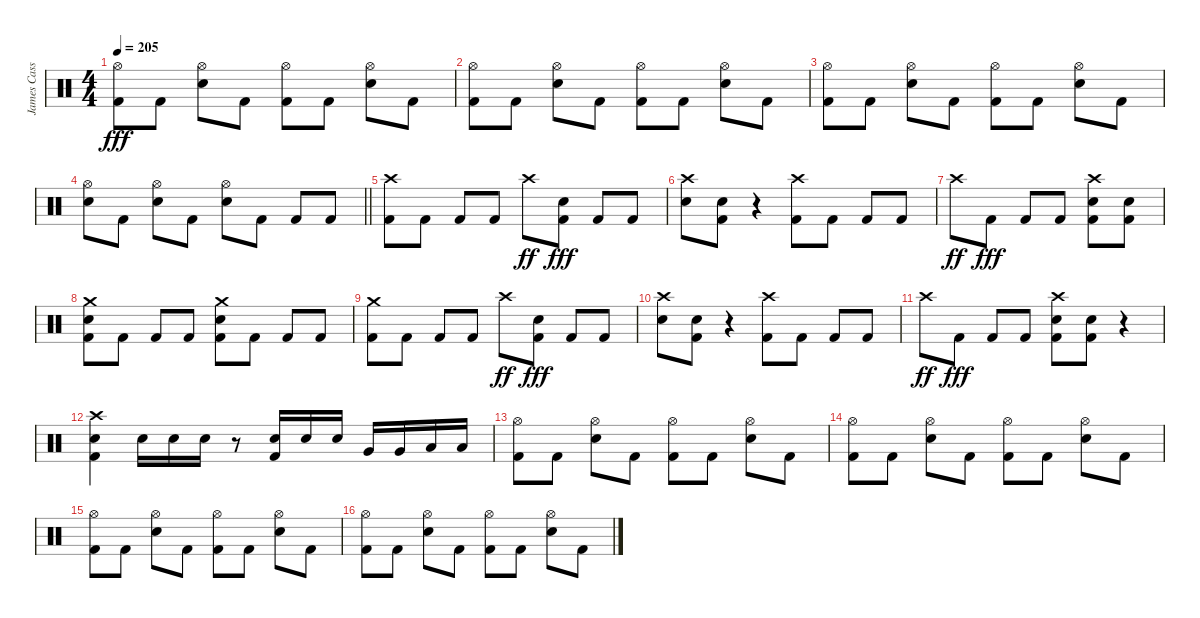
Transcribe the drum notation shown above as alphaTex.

\track ("James Cassels" "James Cass") {instrument percussion}
\staff {score}
\articulation defaults
\ts (4 4)
\tempo 205
\clef neutral
\ks c
("Hi-Hat (open)" "Kick (hit) 2").8{dy fff} "Kick (hit) 2".8 ("Hi-Hat (open)" "Electric Snare (hit)").8 "Kick (hit) 2".8 ("Hi-Hat (open)" "Kick (hit) 2").8 "Kick (hit) 2".8 ("Hi-Hat (open)" "Electric Snare (hit)").8 "Kick (hit) 2".8 |
("Hi-Hat (open)" "Kick (hit) 2").8 "Kick (hit) 2".8 ("Hi-Hat (open)" "Electric Snare (hit)").8 "Kick (hit) 2".8 ("Hi-Hat (open)" "Kick (hit) 2").8 "Kick (hit) 2".8 ("Hi-Hat (open)" "Electric Snare (hit)").8 "Kick (hit) 2".8 |
("Hi-Hat (open)" "Kick (hit) 2").8 "Kick (hit) 2".8 ("Hi-Hat (open)" "Electric Snare (hit)").8 "Kick (hit) 2".8 ("Hi-Hat (open)" "Kick (hit) 2").8 "Kick (hit) 2".8 ("Hi-Hat (open)" "Electric Snare (hit)").8 "Kick (hit) 2".8 |
\barLineRight lightlight
("Hi-Hat (open)" "Electric Snare (hit)").8 "Kick (hit) 2".8 ("Hi-Hat (open)" "Electric Snare (hit)").8 "Kick (hit) 2".8 ("Hi-Hat (open)" "Electric Snare (hit)").8 "Kick (hit) 2".8 "Kick (hit) 2".8 "Kick (hit) 2".8 |
("Crash high (hit)" "Kick (hit) 2").8 "Kick (hit) 2".8 "Kick (hit) 2".8 "Kick (hit) 2".8 "Crash high (hit)".8{dy ff} ("Electric Snare (hit)" "Kick (hit) 2").8{dy fff} "Kick (hit) 2".8 "Kick (hit) 2".8 |
("Crash high (hit)" "Electric Snare (hit)").8 ("Electric Snare (hit)" "Kick (hit) 2").8 r.4 ("Crash high (hit)" "Kick (hit) 2").8 "Kick (hit) 2".8 "Kick (hit) 2".8 "Kick (hit) 2".8 |
"Crash high (hit)".8{dy ff} "Kick (hit) 2".8{dy fff} "Kick (hit) 2".8 "Kick (hit) 2".8 ("Crash high (hit)" "Electric Snare (hit)" "Kick (hit) 2").8 ("Electric Snare (hit)" "Kick (hit) 2").8 |
("Crash medium (hit)" "Electric Snare (hit)" "Kick (hit) 2").8 "Kick (hit) 2".8 "Kick (hit) 2".8 "Kick (hit) 2".8 ("Crash medium (hit)" "Electric Snare (hit)" "Kick (hit) 2").8 "Kick (hit) 2".8 "Kick (hit) 2".8 "Kick (hit) 2".8 |
("Crash medium (hit)" "Kick (hit) 2").8 "Kick (hit) 2".8 "Kick (hit) 2".8 "Kick (hit) 2".8 "Crash high (hit)".8{dy ff} ("Electric Snare (hit)" "Kick (hit) 2").8{dy fff} "Kick (hit) 2".8 "Kick (hit) 2".8 |
("Crash high (hit)" "Electric Snare (hit)").8 ("Electric Snare (hit)" "Kick (hit) 2").8 r.4 ("Crash high (hit)" "Kick (hit) 2").8 "Kick (hit) 2".8 "Kick (hit) 2".8 "Kick (hit) 2".8 |
"Crash high (hit)".8{dy ff} "Kick (hit) 2".8{dy fff} "Kick (hit) 2".8 "Kick (hit) 2".8 ("Crash high (hit)" "Electric Snare (hit)" "Kick (hit) 2").8 ("Electric Snare (hit)" "Kick (hit) 2").8 r.4 |
("Crash high (hit)" "Electric Snare (hit)" "Kick (hit) 2").4 "Electric Snare (hit)".16 "Electric Snare (hit)".16 "Electric Snare (hit)".16 r.8 ("Electric Snare (hit)" "Kick (hit) 2").16 "Electric Snare (hit)".16 "Electric Snare (hit)".16 "Very Low Tom (hit)".16 "Very Low Tom (hit)".16 "Low Floor Tom (hit)".16 "Low Floor Tom (hit)".16 |
("Hi-Hat (open)" "Kick (hit) 2").8 "Kick (hit) 2".8 ("Hi-Hat (open)" "Electric Snare (hit)").8 "Kick (hit) 2".8 ("Hi-Hat (open)" "Kick (hit) 2").8 "Kick (hit) 2".8 ("Hi-Hat (open)" "Electric Snare (hit)").8 "Kick (hit) 2".8 |
("Hi-Hat (open)" "Kick (hit) 2").8 "Kick (hit) 2".8 ("Hi-Hat (open)" "Electric Snare (hit)").8 "Kick (hit) 2".8 ("Hi-Hat (open)" "Kick (hit) 2").8 "Kick (hit) 2".8 ("Hi-Hat (open)" "Electric Snare (hit)").8 "Kick (hit) 2".8 |
("Hi-Hat (open)" "Kick (hit) 2").8 "Kick (hit) 2".8 ("Hi-Hat (open)" "Electric Snare (hit)").8 "Kick (hit) 2".8 ("Hi-Hat (open)" "Kick (hit) 2").8 "Kick (hit) 2".8 ("Hi-Hat (open)" "Electric Snare (hit)").8 "Kick (hit) 2".8 |
("Hi-Hat (open)" "Kick (hit) 2").8 "Kick (hit) 2".8 ("Hi-Hat (open)" "Electric Snare (hit)").8 "Kick (hit) 2".8 ("Hi-Hat (open)" "Kick (hit) 2").8 "Kick (hit) 2".8 ("Hi-Hat (open)" "Electric Snare (hit)").8 "Kick (hit) 2".8
